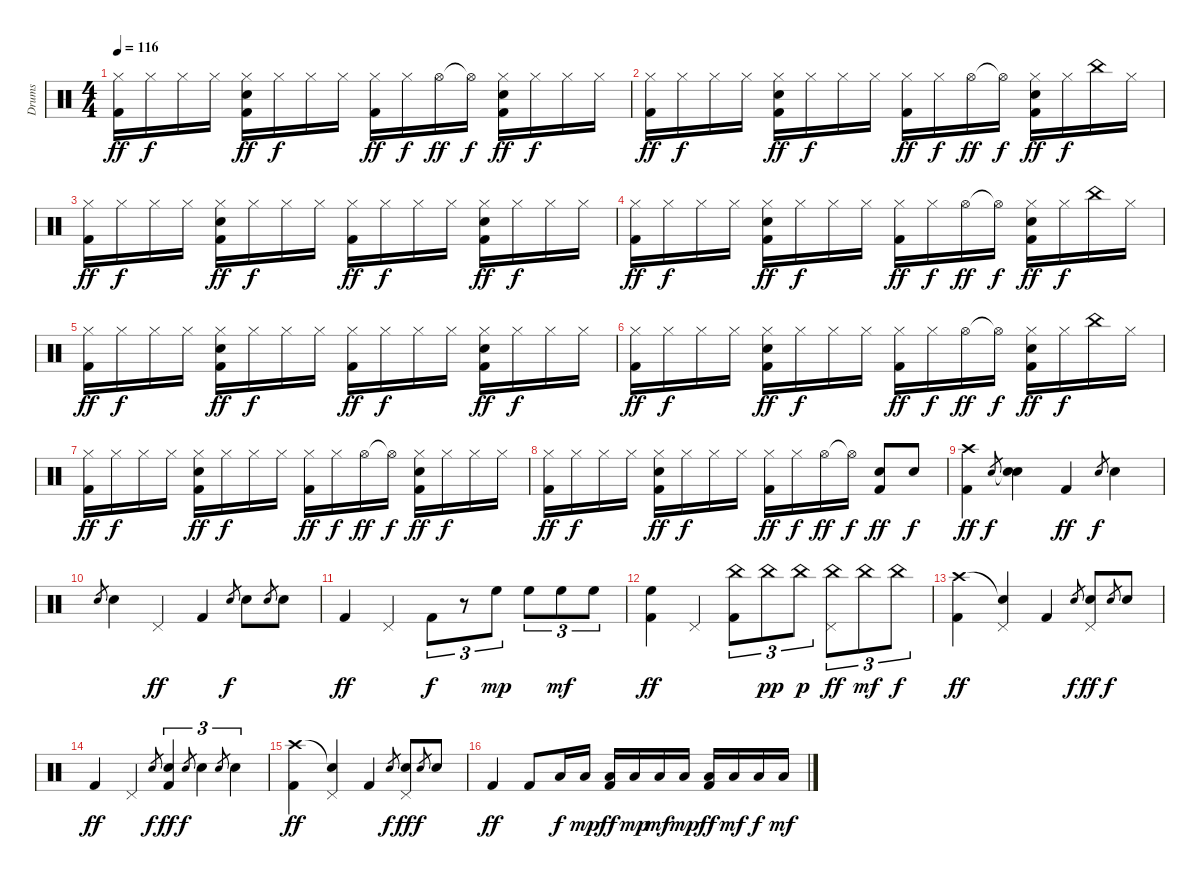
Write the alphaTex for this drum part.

\track ("Drums" "Drums") {instrument percussion}
\staff {score}
\articulation defaults
\ts (4 4)
\tempo 116
\clef neutral
\ks c
("Hi-Hat (closed)" "Kick (hit) 2").16{dy ff} "Hi-Hat (closed)".16{dy f} "Hi-Hat (closed)".16 "Hi-Hat (closed)".16 ("Hi-Hat (closed)" "Snare (hit) 2" "Kick (hit) 2").16{dy ff} "Hi-Hat (closed)".16{dy f} "Hi-Hat (closed)".16 "Hi-Hat (closed)".16 ("Hi-Hat (closed)" "Kick (hit) 2").16{dy ff} "Hi-Hat (closed)".16{dy f} "Hi-Hat (open)".16{dy ff} "Hi-Hat (open)"{t}.16{dy f} ("Hi-Hat (closed)" "Snare (hit) 2" "Kick (hit) 2").16{dy ff} "Hi-Hat (closed)".16{dy f} "Hi-Hat (closed)".16 "Hi-Hat (closed)".16 |
("Hi-Hat (closed)" "Kick (hit) 2").16{dy ff} "Hi-Hat (closed)".16{dy f} "Hi-Hat (closed)".16 "Hi-Hat (closed)".16 ("Hi-Hat (closed)" "Snare (hit) 2" "Kick (hit) 2").16{dy ff} "Hi-Hat (closed)".16{dy f} "Hi-Hat (closed)".16 "Hi-Hat (closed)".16 ("Hi-Hat (closed)" "Kick (hit) 2").16{dy ff} "Hi-Hat (closed)".16{dy f} "Hi-Hat (open)".16{dy ff} "Hi-Hat (open)"{t}.16{dy f} ("Hi-Hat (closed)" "Snare (hit) 2" "Kick (hit) 2").16{dy ff} "Hi-Hat (closed)".16{dy f} "China (hit)".16 "Hi-Hat (closed)".16 |
("Hi-Hat (closed)" "Kick (hit) 2").16{dy ff} "Hi-Hat (closed)".16{dy f} "Hi-Hat (closed)".16 "Hi-Hat (closed)".16 ("Hi-Hat (closed)" "Snare (hit) 2" "Kick (hit) 2").16{dy ff} "Hi-Hat (closed)".16{dy f} "Hi-Hat (closed)".16 "Hi-Hat (closed)".16 ("Hi-Hat (closed)" "Kick (hit) 2").16{dy ff} "Hi-Hat (closed)".16{dy f} "Hi-Hat (closed)".16 "Hi-Hat (closed)".16 ("Hi-Hat (closed)" "Snare (hit) 2" "Kick (hit) 2").16{dy ff} "Hi-Hat (closed)".16{dy f} "Hi-Hat (closed)".16 "Hi-Hat (closed)".16 |
("Hi-Hat (closed)" "Kick (hit) 2").16{dy ff} "Hi-Hat (closed)".16{dy f} "Hi-Hat (closed)".16 "Hi-Hat (closed)".16 ("Hi-Hat (closed)" "Snare (hit) 2" "Kick (hit) 2").16{dy ff} "Hi-Hat (closed)".16{dy f} "Hi-Hat (closed)".16 "Hi-Hat (closed)".16 ("Hi-Hat (closed)" "Kick (hit) 2").16{dy ff} "Hi-Hat (closed)".16{dy f} "Hi-Hat (open)".16{dy ff} "Hi-Hat (open)"{t}.16{dy f} ("Hi-Hat (closed)" "Snare (hit) 2" "Kick (hit) 2").16{dy ff} "Hi-Hat (closed)".16{dy f} "China (hit)".16 "Hi-Hat (closed)".16 |
("Hi-Hat (closed)" "Kick (hit) 2").16{dy ff} "Hi-Hat (closed)".16{dy f} "Hi-Hat (closed)".16 "Hi-Hat (closed)".16 ("Hi-Hat (closed)" "Snare (hit) 2" "Kick (hit) 2").16{dy ff} "Hi-Hat (closed)".16{dy f} "Hi-Hat (closed)".16 "Hi-Hat (closed)".16 ("Hi-Hat (closed)" "Kick (hit) 2").16{dy ff} "Hi-Hat (closed)".16{dy f} "Hi-Hat (closed)".16 "Hi-Hat (closed)".16 ("Hi-Hat (closed)" "Snare (hit) 2" "Kick (hit) 2").16{dy ff} "Hi-Hat (closed)".16{dy f} "Hi-Hat (closed)".16 "Hi-Hat (closed)".16 |
("Hi-Hat (closed)" "Kick (hit) 2").16{dy ff} "Hi-Hat (closed)".16{dy f} "Hi-Hat (closed)".16 "Hi-Hat (closed)".16 ("Hi-Hat (closed)" "Snare (hit) 2" "Kick (hit) 2").16{dy ff} "Hi-Hat (closed)".16{dy f} "Hi-Hat (closed)".16 "Hi-Hat (closed)".16 ("Hi-Hat (closed)" "Kick (hit) 2").16{dy ff} "Hi-Hat (closed)".16{dy f} "Hi-Hat (open)".16{dy ff} "Hi-Hat (open)"{t}.16{dy f} ("Hi-Hat (closed)" "Snare (hit) 2" "Kick (hit) 2").16{dy ff} "Hi-Hat (closed)".16{dy f} "China (hit)".16 "Hi-Hat (closed)".16 |
("Hi-Hat (closed)" "Kick (hit) 2").16{dy ff} "Hi-Hat (closed)".16{dy f} "Hi-Hat (closed)".16 "Hi-Hat (closed)".16 ("Hi-Hat (closed)" "Snare (hit) 2" "Kick (hit) 2").16{dy ff} "Hi-Hat (closed)".16{dy f} "Hi-Hat (closed)".16 "Hi-Hat (closed)".16 ("Hi-Hat (closed)" "Kick (hit) 2").16{dy ff} "Hi-Hat (closed)".16{dy f} "Hi-Hat (open)".16{dy ff} "Hi-Hat (open)"{t}.16{dy f} ("Hi-Hat (closed)" "Snare (hit) 2" "Kick (hit) 2").16{dy ff} "Hi-Hat (closed)".16{dy f} "Hi-Hat (closed)".16 "Hi-Hat (closed)".16 |
("Hi-Hat (closed)" "Kick (hit) 2").16{dy ff} "Hi-Hat (closed)".16{dy f} "Hi-Hat (closed)".16 "Hi-Hat (closed)".16 ("Hi-Hat (closed)" "Snare (hit) 2" "Kick (hit) 2").16{dy ff} "Hi-Hat (closed)".16{dy f} "Hi-Hat (closed)".16 "Hi-Hat (closed)".16 ("Hi-Hat (closed)" "Kick (hit) 2").16{dy ff} "Hi-Hat (closed)".16{dy f} "Hi-Hat (open)".16{dy ff} "Hi-Hat (open)"{t}.16{dy f} ("Snare (hit) 2" "Kick (hit) 2").8{dy ff} "Snare (hit) 2".8{dy f} |
("Crash high (hit)" "Kick (hit) 2").4{dy ff} "Snare (hit) 2".8{gr dy f} ("Snare (hit)"{t} "Snare (hit) 2").4 "Kick (hit) 2".4{dy ff} "Snare (hit) 2".8{gr dy f} "Snare (hit) 2".4 |
"Snare (hit) 2".8{gr} "Snare (hit) 2".4 "Pedal Hi-Hat (hit)".4{dy ff} "Kick (hit) 2".4 "Snare (hit) 2".8{gr dy f} "Snare (hit) 2".8 "Snare (hit) 2".8{gr} "Snare (hit) 2".8 |
"Kick (hit) 2".4{dy ff} "Pedal Hi-Hat (hit)".4 "Kick (hit) 2".8{tu (3 2) dy f} r.8{tu (3 2)} "High Floor Tom (hit)".8{tu (3 2) dy mp} "High Floor Tom (hit)".8{tu (3 2)} "High Floor Tom (hit)".8{tu (3 2) dy mf} "High Floor Tom (hit)".8{tu (3 2)} |
("High Floor Tom (hit)" "Kick (hit) 2").4{dy ff} "Pedal Hi-Hat (hit)".4 ("China (hit)" "Kick (hit) 2").8{tu (3 2)} "China (hit)".8{tu (3 2) dy pp} "China (hit)".8{tu (3 2) dy p} ("China (hit)" "Pedal Hi-Hat (hit)").8{tu (3 2) dy ff} "China (hit)".8{tu (3 2) dy mf} "China (hit)".8{tu (3 2) dy f} |
("Crash high (hit)" "Kick (hit) 2").4{dy ff} ("Snare (hit)"{t} "Pedal Hi-Hat (hit)").4 "Kick (hit) 2".4 "Snare (hit) 2".8{gr dy f} ("Snare (hit) 2" "Pedal Hi-Hat (hit)").8{dy ff} "Snare (hit) 2".8{gr dy f} "Snare (hit) 2".8 |
"Kick (hit) 2".4{dy ff} "Pedal Hi-Hat (hit)".4 "Snare (hit) 2".8{gr dy f} ("Snare (hit) 2" "Kick (hit) 2").4{tu (3 2) dy ff} "Snare (hit) 2".8{gr dy f} "Snare (hit) 2".4{tu (3 2)} "Snare (hit) 2".8{gr} "Snare (hit) 2".4{tu (3 2)} |
("Crash high (hit)" "Kick (hit) 2").4{dy ff} ("Snare (hit)"{t} "Pedal Hi-Hat (hit)").4 "Kick (hit) 2".4 "Snare (hit) 2".8{gr dy f} ("Snare (hit) 2" "Pedal Hi-Hat (hit)").8{dy ff} "Snare (hit) 2".8{gr dy f} "Snare (hit) 2".8 |
"Kick (hit) 2".4{dy ff} "Kick (hit) 2".8 "Low Floor Tom (hit)".16{dy f} "Low Floor Tom (hit)".16{dy mp} ("Low Floor Tom (hit)" "Kick (hit) 2").16{dy ff} "Low Floor Tom (hit)".16{dy mp} "Low Floor Tom (hit)".16{dy mf} "Low Floor Tom (hit)".16{dy mp} ("Low Floor Tom (hit)" "Kick (hit) 2").16{dy ff} "Low Floor Tom (hit)".16{dy mf} "Low Floor Tom (hit)".16{dy f} "Low Floor Tom (hit)".16{dy mf}
